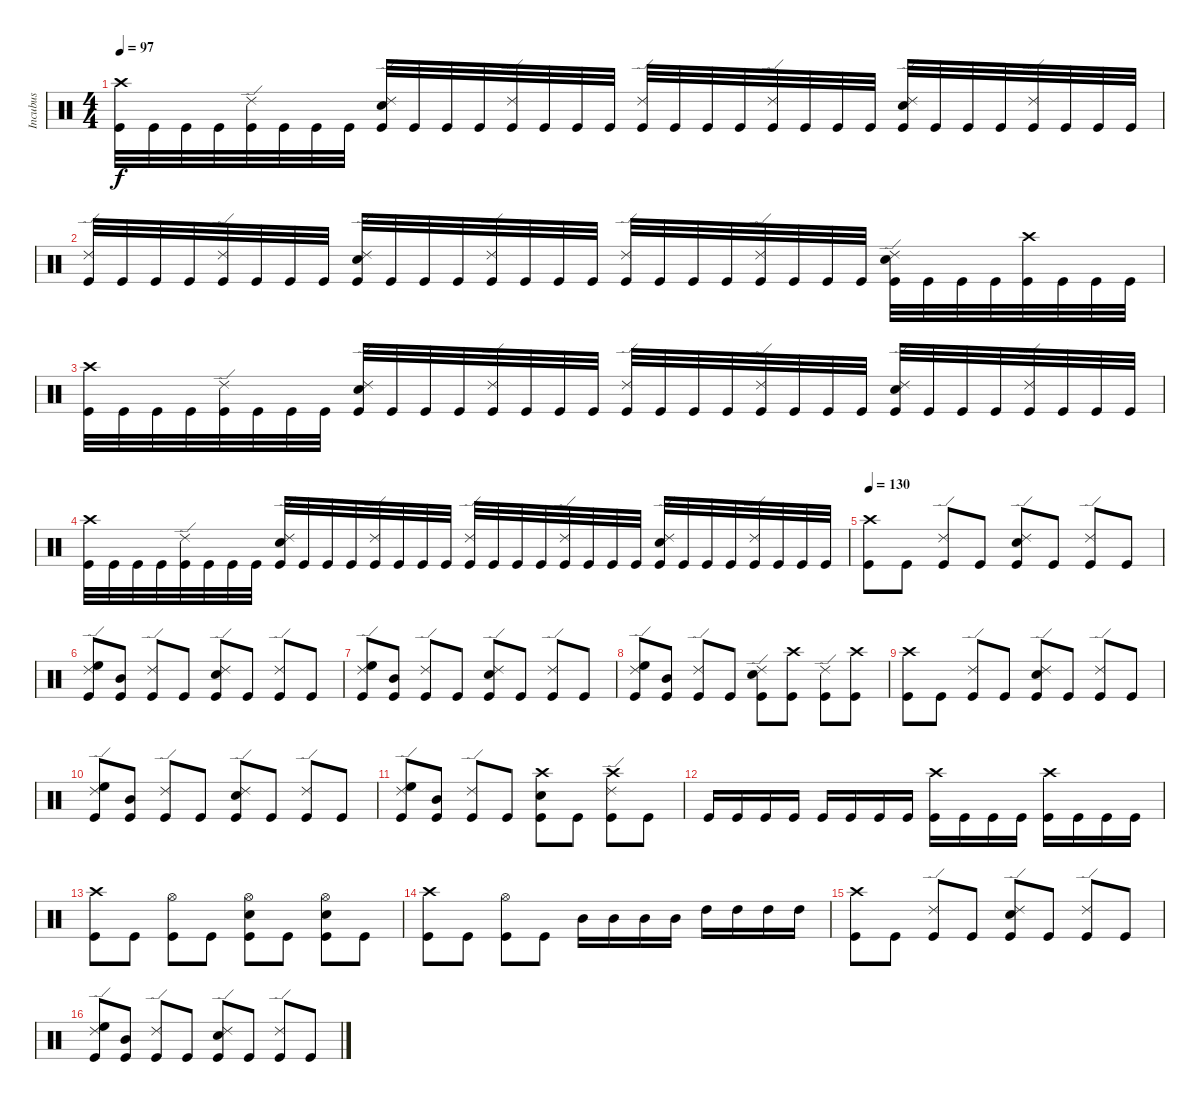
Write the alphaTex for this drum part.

\track ("Incubus" "Incubus") {instrument percussion}
\staff {score}
\articulation defaults
\ts (4 4)
\tempo 97
\clef neutral
\ks c
("Crash high (hit)" "Kick (hit)").32{dy f} "Kick (hit)".32 "Kick (hit)".32 "Kick (hit)".32 ("Ride (edge) 2" "Kick (hit)").32 "Kick (hit)".32 "Kick (hit)".32 "Kick (hit)".32 ("Ride (edge) 2" "Electric Snare (hit)" "Kick (hit)").32 "Kick (hit)".32 "Kick (hit)".32 "Kick (hit)".32 ("Ride (edge) 2" "Kick (hit)").32 "Kick (hit)".32 "Kick (hit)".32 "Kick (hit)".32 ("Ride (edge) 2" "Kick (hit)").32 "Kick (hit)".32 "Kick (hit)".32 "Kick (hit)".32 ("Ride (edge) 2" "Kick (hit)").32 "Kick (hit)".32 "Kick (hit)".32 "Kick (hit)".32 ("Ride (edge) 2" "Electric Snare (hit)" "Kick (hit)").32 "Kick (hit)".32 "Kick (hit)".32 "Kick (hit)".32 ("Ride (edge) 2" "Kick (hit)").32 "Kick (hit)".32 "Kick (hit)".32 "Kick (hit)".32 |
("Ride (edge) 2" "Kick (hit)").32 "Kick (hit)".32 "Kick (hit)".32 "Kick (hit)".32 ("Ride (edge) 2" "Kick (hit)").32 "Kick (hit)".32 "Kick (hit)".32 "Kick (hit)".32 ("Ride (edge) 2" "Electric Snare (hit)" "Kick (hit)").32 "Kick (hit)".32 "Kick (hit)".32 "Kick (hit)".32 ("Ride (edge) 2" "Kick (hit)").32 "Kick (hit)".32 "Kick (hit)".32 "Kick (hit)".32 ("Ride (edge) 2" "Kick (hit)").32 "Kick (hit)".32 "Kick (hit)".32 "Kick (hit)".32 ("Ride (edge) 2" "Kick (hit)").32 "Kick (hit)".32 "Kick (hit)".32 "Kick (hit)".32 ("Ride (edge) 2" "Electric Snare (hit)" "Kick (hit)").32 "Kick (hit)".32 "Kick (hit)".32 "Kick (hit)".32 ("Crash high (hit)" "Kick (hit)").32 "Kick (hit)".32 "Kick (hit)".32 "Kick (hit)".32 |
("Crash high (hit)" "Kick (hit)").32 "Kick (hit)".32 "Kick (hit)".32 "Kick (hit)".32 ("Ride (edge) 2" "Kick (hit)").32 "Kick (hit)".32 "Kick (hit)".32 "Kick (hit)".32 ("Ride (edge) 2" "Electric Snare (hit)" "Kick (hit)").32 "Kick (hit)".32 "Kick (hit)".32 "Kick (hit)".32 ("Ride (edge) 2" "Kick (hit)").32 "Kick (hit)".32 "Kick (hit)".32 "Kick (hit)".32 ("Ride (edge) 2" "Kick (hit)").32 "Kick (hit)".32 "Kick (hit)".32 "Kick (hit)".32 ("Ride (edge) 2" "Kick (hit)").32 "Kick (hit)".32 "Kick (hit)".32 "Kick (hit)".32 ("Ride (edge) 2" "Electric Snare (hit)" "Kick (hit)").32 "Kick (hit)".32 "Kick (hit)".32 "Kick (hit)".32 ("Ride (edge) 2" "Kick (hit)").32 "Kick (hit)".32 "Kick (hit)".32 "Kick (hit)".32 |
("Crash high (hit)" "Kick (hit)").32 "Kick (hit)".32 "Kick (hit)".32 "Kick (hit)".32 ("Ride (edge) 2" "Kick (hit)").32 "Kick (hit)".32 "Kick (hit)".32 "Kick (hit)".32 ("Ride (edge) 2" "Electric Snare (hit)" "Kick (hit)").32 "Kick (hit)".32 "Kick (hit)".32 "Kick (hit)".32 ("Ride (edge) 2" "Kick (hit)").32 "Kick (hit)".32 "Kick (hit)".32 "Kick (hit)".32 ("Ride (edge) 2" "Kick (hit)").32 "Kick (hit)".32 "Kick (hit)".32 "Kick (hit)".32 ("Ride (edge) 2" "Kick (hit)").32 "Kick (hit)".32 "Kick (hit)".32 "Kick (hit)".32 ("Ride (edge) 2" "Electric Snare (hit)" "Kick (hit)").32 "Kick (hit)".32 "Kick (hit)".32 "Kick (hit)".32 ("Ride (edge) 2" "Kick (hit)").32 "Kick (hit)".32 "Kick (hit)".32 "Kick (hit)".32 |
\tempo 130
("Crash high (hit)" "Kick (hit)").8 "Kick (hit)".8 ("Ride (edge) 2" "Kick (hit)").8 "Kick (hit)".8 ("Ride (edge) 2" "Electric Snare (hit)" "Kick (hit)").8 "Kick (hit)".8 ("Ride (edge) 2" "Kick (hit)").8 "Kick (hit)".8 |
("High Floor Tom (hit)" "Ride (edge) 2" "Kick (hit)").8 ("Mid Tom (hit)" "Kick (hit)").8 ("Ride (edge) 2" "Kick (hit)").8 "Kick (hit)".8 ("Ride (edge) 2" "Electric Snare (hit)" "Kick (hit)").8 "Kick (hit)".8 ("Ride (edge) 2" "Kick (hit)").8 "Kick (hit)".8 |
("High Floor Tom (hit)" "Ride (edge) 2" "Kick (hit)").8 ("Mid Tom (hit)" "Kick (hit)").8 ("Ride (edge) 2" "Kick (hit)").8 "Kick (hit)".8 ("Ride (edge) 2" "Electric Snare (hit)" "Kick (hit)").8 "Kick (hit)".8 ("Ride (edge) 2" "Kick (hit)").8 "Kick (hit)".8 |
("High Floor Tom (hit)" "Ride (edge) 2" "Kick (hit)").8 ("Mid Tom (hit)" "Kick (hit)").8 ("Ride (edge) 2" "Kick (hit)").8 "Kick (hit)".8 ("Ride (edge) 2" "Electric Snare (hit)" "Kick (hit)").8 ("Crash high (hit)" "Kick (hit)").8 ("Ride (edge) 2" "Kick (hit)").8 ("Crash high (hit)" "Kick (hit)").8 |
("Crash high (hit)" "Kick (hit)").8 "Kick (hit)".8 ("Ride (edge) 2" "Kick (hit)").8 "Kick (hit)".8 ("Ride (edge) 2" "Electric Snare (hit)" "Kick (hit)").8 "Kick (hit)".8 ("Ride (edge) 2" "Kick (hit)").8 "Kick (hit)".8 |
("High Floor Tom (hit)" "Ride (edge) 2" "Kick (hit)").8 ("Mid Tom (hit)" "Kick (hit)").8 ("Ride (edge) 2" "Kick (hit)").8 "Kick (hit)".8 ("Ride (edge) 2" "Electric Snare (hit)" "Kick (hit)").8 "Kick (hit)".8 ("Ride (edge) 2" "Kick (hit)").8 "Kick (hit)".8 |
("High Floor Tom (hit)" "Ride (edge) 2" "Kick (hit)").8 ("Mid Tom (hit)" "Kick (hit)").8 ("Ride (edge) 2" "Kick (hit)").8 "Kick (hit)".8 ("Crash high (hit)" "Electric Snare (hit)" "Kick (hit)").8 "Kick (hit)".8 ("Crash high (hit)" "Ride (edge) 2" "Kick (hit)").8 "Kick (hit)".8 |
"Kick (hit)".16 "Kick (hit)".16 "Kick (hit)".16 "Kick (hit)".16 "Kick (hit)".16 "Kick (hit)".16 "Kick (hit)".16 "Kick (hit)".16 ("Crash high (hit)" "Kick (hit)").16 "Kick (hit)".16 "Kick (hit)".16 "Kick (hit)".16 ("Crash high (hit)" "Kick (hit)").16 "Kick (hit)".16 "Kick (hit)".16 "Kick (hit)".16 |
("Crash high (hit)" "Kick (hit)").8 "Kick (hit)".8 ("Hi-Hat (open)" "Kick (hit)").8 "Kick (hit)".8 ("Electric Snare (hit)" "Hi-Hat (open)" "Kick (hit)").8 "Kick (hit)".8 ("Electric Snare (hit)" "Hi-Hat (open)" "Kick (hit)").8 "Kick (hit)".8 |
("Crash high (hit)" "Kick (hit)").8 "Kick (hit)".8 ("Hi-Hat (open)" "Kick (hit)").8 "Kick (hit)".8 "Mid Tom (hit)".16 "Mid Tom (hit)".16 "Mid Tom (hit)".16 "Mid Tom (hit)".16 "High Tom (hit)".16 "High Tom (hit)".16 "High Tom (hit)".16 "High Tom (hit)".16 |
("Crash high (hit)" "Kick (hit)").8 "Kick (hit)".8 ("Ride (edge) 2" "Kick (hit)").8 "Kick (hit)".8 ("Ride (edge) 2" "Electric Snare (hit)" "Kick (hit)").8 "Kick (hit)".8 ("Ride (edge) 2" "Kick (hit)").8 "Kick (hit)".8 |
("High Floor Tom (hit)" "Ride (edge) 2" "Kick (hit)").8 ("Mid Tom (hit)" "Kick (hit)").8 ("Ride (edge) 2" "Kick (hit)").8 "Kick (hit)".8 ("Ride (edge) 2" "Electric Snare (hit)" "Kick (hit)").8 "Kick (hit)".8 ("Ride (edge) 2" "Kick (hit)").8 "Kick (hit)".8
